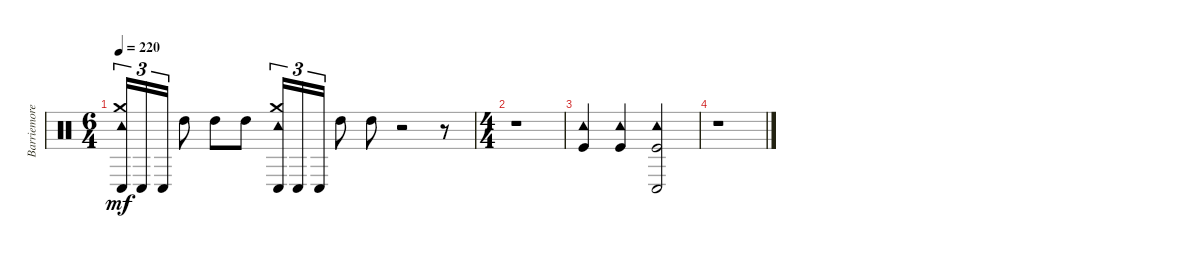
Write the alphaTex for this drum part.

\track ("Barriemore Barlow (Drums)" "Barriemore") {instrument percussion}
\staff {score}
\articulation defaults
\ts (6 4)
\tempo 220
\clef neutral
\ks c
("Tambourine (hit)" "Crash medium (hit)" "Conga low (hit)").16{tu (3 2) dy mf} "Conga low (hit)".16{tu (3 2)} "Conga low (hit)".16{tu (3 2)} "High Tom (hit)".8 "High Tom (hit)".8 "High Tom (hit)".8 ("Tambourine (hit)" "Crash medium (hit)" "Conga low (hit)").16{tu (3 2)} "Conga low (hit)".16{tu (3 2)} "Conga low (hit)".16{tu (3 2)} "High Tom (hit)".8 "High Tom (hit)".8 r.2 r.8 |
\ts (4 4)
r.1 |
("Kick (hit)" "Tambourine (hit)").4 ("Kick (hit)" "Tambourine (hit)").4 ("Kick (hit)" "Tambourine (hit)" "Conga low (hit)").2 |
r.1
